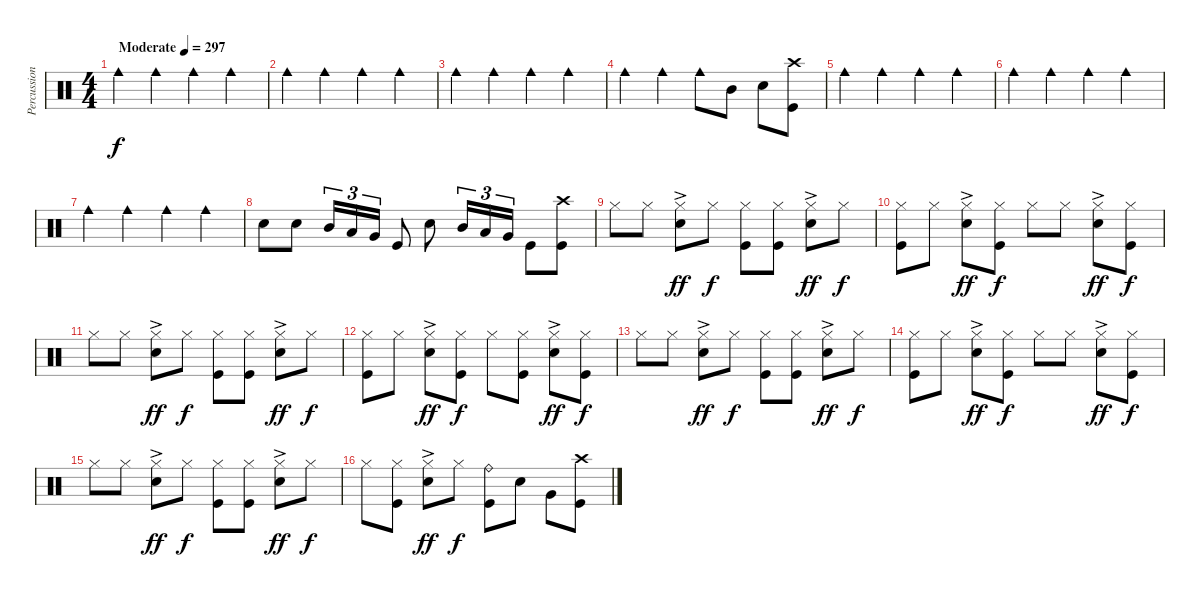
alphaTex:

\track ("Percussioni" "Percussion") {instrument percussion}
\staff {score}
\articulation defaults
\ts (4 4)
\tempo (297 "Moderate")
\clef neutral
\ks c "Cowbell medium (hit)".4{dy f} "Cowbell medium (hit)".4 "Cowbell medium (hit)".4 "Cowbell medium (hit)".4
|
"Cowbell medium (hit)".4 "Cowbell medium (hit)".4 "Cowbell medium (hit)".4 "Cowbell medium (hit)".4 |
"Cowbell medium (hit)".4 "Cowbell medium (hit)".4 "Cowbell medium (hit)".4 "Cowbell medium (hit)".4 |
"Cowbell medium (hit)".4 "Cowbell medium (hit)".4 "Cowbell medium (hit)".8 "Mid Tom (hit)".8 "Snare (hit) 2".8 ("Kick (hit)" "Crash high (hit)").8 |
"Cowbell medium (hit)".4 "Cowbell medium (hit)".4 "Cowbell medium (hit)".4 "Cowbell medium (hit)".4 |
"Cowbell medium (hit)".4 "Cowbell medium (hit)".4 "Cowbell medium (hit)".4 "Cowbell medium (hit)".4 |
"Cowbell medium (hit)".4 "Cowbell medium (hit)".4 "Cowbell medium (hit)".4 "Cowbell medium (hit)".4 |
"Snare (hit) 2".8 "Snare (hit) 2".8 "Mid Tom (hit)".16{tu (3 2)} "Low Tom (hit)".16{tu (3 2)} "Very Low Tom (hit)".16{tu (3 2)} "Kick (hit)".8 "Snare (hit) 2".8 "Mid Tom (hit)".16{tu (3 2)} "Low Tom (hit)".16{tu (3 2)} "Very Low Tom (hit)".16{tu (3 2)} "Kick (hit)".8 ("Kick (hit)" "Crash high (hit)").8 |
"Hi-Hat (closed)".8 "Hi-Hat (closed)".8 ("Hi-Hat (closed)"{ac} "Snare (hit) 2").8{dy ff} "Hi-Hat (closed)".8{dy f} ("Hi-Hat (closed)" "Kick (hit)").8 ("Hi-Hat (closed)" "Kick (hit)").8 ("Hi-Hat (closed)"{ac} "Snare (hit) 2").8{dy ff} "Hi-Hat (closed)".8{dy f} |
("Hi-Hat (closed)" "Kick (hit)").8 "Hi-Hat (closed)".8 ("Hi-Hat (closed)"{ac} "Snare (hit) 2").8{dy ff} ("Hi-Hat (closed)" "Kick (hit)").8{dy f} "Hi-Hat (closed)".8 "Hi-Hat (closed)".8 ("Hi-Hat (closed)"{ac} "Snare (hit) 2").8{dy ff} ("Hi-Hat (closed)" "Kick (hit)").8{dy f} |
"Hi-Hat (closed)".8 "Hi-Hat (closed)".8 ("Hi-Hat (closed)"{ac} "Snare (hit) 2").8{dy ff} "Hi-Hat (closed)".8{dy f} ("Hi-Hat (closed)" "Kick (hit)").8 ("Hi-Hat (closed)" "Kick (hit)").8 ("Hi-Hat (closed)"{ac} "Snare (hit) 2").8{dy ff} "Hi-Hat (closed)".8{dy f} |
("Hi-Hat (closed)" "Kick (hit)").8 "Hi-Hat (closed)".8 ("Hi-Hat (closed)"{ac} "Snare (hit) 2").8{dy ff} ("Hi-Hat (closed)" "Kick (hit)").8{dy f} "Hi-Hat (closed)".8 ("Hi-Hat (closed)" "Kick (hit)").8 ("Hi-Hat (closed)"{ac} "Snare (hit) 2").8{dy ff} ("Hi-Hat (closed)" "Kick (hit)").8{dy f} |
"Hi-Hat (closed)".8 "Hi-Hat (closed)".8 ("Hi-Hat (closed)"{ac} "Snare (hit) 2").8{dy ff} "Hi-Hat (closed)".8{dy f} ("Hi-Hat (closed)" "Kick (hit)").8 ("Hi-Hat (closed)" "Kick (hit)").8 ("Hi-Hat (closed)"{ac} "Snare (hit) 2").8{dy ff} "Hi-Hat (closed)".8{dy f} |
("Hi-Hat (closed)" "Kick (hit)").8 "Hi-Hat (closed)".8 ("Hi-Hat (closed)"{ac} "Snare (hit) 2").8{dy ff} ("Hi-Hat (closed)" "Kick (hit)").8{dy f} "Hi-Hat (closed)".8 "Hi-Hat (closed)".8 ("Hi-Hat (closed)"{ac} "Snare (hit) 2").8{dy ff} ("Hi-Hat (closed)" "Kick (hit)").8{dy f} |
"Hi-Hat (closed)".8 "Hi-Hat (closed)".8 ("Hi-Hat (closed)"{ac} "Snare (hit) 2").8{dy ff} "Hi-Hat (closed)".8{dy f} ("Hi-Hat (closed)" "Kick (hit)").8 ("Hi-Hat (closed)" "Kick (hit)").8 ("Hi-Hat (closed)"{ac} "Snare (hit) 2").8{dy ff} "Hi-Hat (closed)".8{dy f} |
"Hi-Hat (closed)".8 ("Hi-Hat (closed)" "Kick (hit)").8 ("Hi-Hat (closed)"{ac} "Snare (hit) 2").8{dy ff} "Hi-Hat (closed)".8{dy f} ("Ride (bell)" "Kick (hit)").8 "Snare (hit) 2".8 "Very Low Tom (hit)".8 ("Crash high (hit)" "Kick (hit)").8
